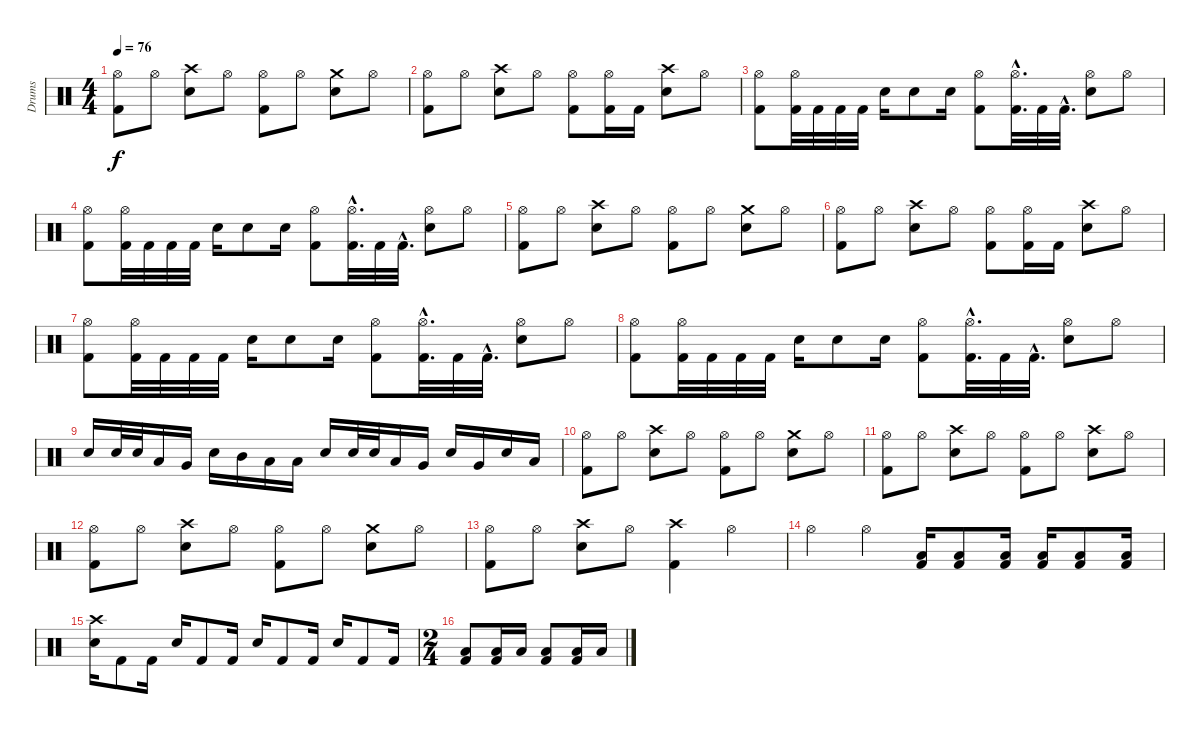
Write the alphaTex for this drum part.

\track ("Drums" "Drums") {instrument percussion}
\staff {score}
\articulation defaults
\ts (4 4)
\tempo 76
\clef neutral
\ks c
("Kick (hit) 2" "Hi-Hat (open)").8{dy f} "Hi-Hat (open)".8 ("Crash high (hit)" "Snare (hit) 2").8 "Hi-Hat (open)".8 ("Kick (hit) 2" "Hi-Hat (open)").8 "Hi-Hat (open)".8 ("Crash medium (hit)" "Snare (hit) 2").8 "Hi-Hat (open)".8 |
("Kick (hit) 2" "Hi-Hat (open)").8 "Hi-Hat (open)".8 ("Snare (hit) 2" "Crash high (hit)").8 "Hi-Hat (open)".8 ("Kick (hit) 2" "Hi-Hat (open)").8 ("Kick (hit) 2" "Hi-Hat (open)").16 "Kick (hit) 2".16 ("Crash high (hit)" "Snare (hit) 2").8 "Hi-Hat (open)".8 |
("Kick (hit) 2" "Hi-Hat (open)").8 ("Hi-Hat (open)" "Kick (hit) 2").32 "Kick (hit) 2".32 "Kick (hit) 2".32 "Kick (hit) 2".32 "Snare (hit) 2".16 "Snare (hit) 2".8 "Snare (hit) 2".16 ("Hi-Hat (open)" "Kick (hit) 2").8 ("Kick (hit) 2"{hac} "Hi-Hat (open)"{hac}).32{d} "Kick (hit) 2".32 "Kick (hit) 2"{hac}.32{d} ("Snare (hit) 2" "Hi-Hat (open)").8 "Hi-Hat (open)".8 |
("Kick (hit) 2" "Hi-Hat (open)").8 ("Hi-Hat (open)" "Kick (hit) 2").32 "Kick (hit) 2".32 "Kick (hit) 2".32 "Kick (hit) 2".32 "Snare (hit) 2".16 "Snare (hit) 2".8 "Snare (hit) 2".16 ("Hi-Hat (open)" "Kick (hit) 2").8 ("Kick (hit) 2"{hac} "Hi-Hat (open)"{hac}).32{d} "Kick (hit) 2".32 "Kick (hit) 2"{hac}.32{d} ("Snare (hit) 2" "Hi-Hat (open)").8 "Hi-Hat (open)".8 |
("Kick (hit) 2" "Hi-Hat (open)").8 "Hi-Hat (open)".8 ("Crash high (hit)" "Snare (hit) 2").8 "Hi-Hat (open)".8 ("Kick (hit) 2" "Hi-Hat (open)").8 "Hi-Hat (open)".8 ("Crash medium (hit)" "Snare (hit) 2").8 "Hi-Hat (open)".8 |
("Kick (hit) 2" "Hi-Hat (open)").8 "Hi-Hat (open)".8 ("Snare (hit) 2" "Crash high (hit)").8 "Hi-Hat (open)".8 ("Kick (hit) 2" "Hi-Hat (open)").8 ("Kick (hit) 2" "Hi-Hat (open)").16 "Kick (hit) 2".16 ("Crash high (hit)" "Snare (hit) 2").8 "Hi-Hat (open)".8 |
("Kick (hit) 2" "Hi-Hat (open)").8 ("Hi-Hat (open)" "Kick (hit) 2").32 "Kick (hit) 2".32 "Kick (hit) 2".32 "Kick (hit) 2".32 "Snare (hit) 2".16 "Snare (hit) 2".8 "Snare (hit) 2".16 ("Hi-Hat (open)" "Kick (hit) 2").8 ("Kick (hit) 2"{hac} "Hi-Hat (open)"{hac}).32{d} "Kick (hit) 2".32 "Kick (hit) 2"{hac}.32{d} ("Snare (hit) 2" "Hi-Hat (open)").8 "Hi-Hat (open)".8 |
("Kick (hit) 2" "Hi-Hat (open)").8 ("Hi-Hat (open)" "Kick (hit) 2").32 "Kick (hit) 2".32 "Kick (hit) 2".32 "Kick (hit) 2".32 "Snare (hit) 2".16 "Snare (hit) 2".8 "Snare (hit) 2".16 ("Hi-Hat (open)" "Kick (hit) 2").8 ("Kick (hit) 2"{hac} "Hi-Hat (open)"{hac}).32{d} "Kick (hit) 2".32 "Kick (hit) 2"{hac}.32{d} ("Snare (hit) 2" "Hi-Hat (open)").8 "Hi-Hat (open)".8 |
"Snare (hit) 2".16 "Snare (hit) 2".32 "Snare (hit) 2".32 "Low Tom (hit)".16 "Very Low Tom (hit)".16 "Snare (hit) 2".16 "Mid Tom (hit)".16 "Low Tom (hit)".16 "Low Floor Tom (hit)".16 "Snare (hit) 2".16 "Snare (hit) 2".32 "Snare (hit) 2".32 "Low Tom (hit)".16 "Very Low Tom (hit)".16 "Snare (hit) 2".16 "Very Low Tom (hit)".16 "Snare (hit) 2".16 "Low Floor Tom (hit)".16 |
("Kick (hit) 2" "Hi-Hat (open)").8 "Hi-Hat (open)".8 ("Crash high (hit)" "Snare (hit) 2").8 "Hi-Hat (open)".8 ("Kick (hit) 2" "Hi-Hat (open)").8 "Hi-Hat (open)".8 ("Crash medium (hit)" "Snare (hit) 2").8 "Hi-Hat (open)".8 |
("Kick (hit) 2" "Hi-Hat (open)").8 "Hi-Hat (open)".8 ("Crash high (hit)" "Snare (hit) 2").8 "Hi-Hat (open)".8 ("Kick (hit) 2" "Hi-Hat (open)").8 "Hi-Hat (open)".8 ("Crash high (hit)" "Snare (hit) 2").8 "Hi-Hat (open)".8 |
("Kick (hit) 2" "Hi-Hat (open)").8 "Hi-Hat (open)".8 ("Crash high (hit)" "Snare (hit) 2").8 "Hi-Hat (open)".8 ("Kick (hit) 2" "Hi-Hat (open)").8 "Hi-Hat (open)".8 ("Crash medium (hit)" "Snare (hit) 2").8 "Hi-Hat (open)".8 |
("Kick (hit) 2" "Hi-Hat (open)").8 "Hi-Hat (open)".8 ("Crash high (hit)" "Snare (hit) 2").8 "Hi-Hat (open)".8 ("Crash high (hit)" "Kick (hit) 2").4 "Hi-Hat (open)".4 |
"Hi-Hat (open)".4 "Hi-Hat (open)".4 ("Kick (hit) 2" "Low Floor Tom (hit)").16 ("Kick (hit) 2" "Low Floor Tom (hit)").8 ("Kick (hit) 2" "Low Floor Tom (hit)").16 ("Low Floor Tom (hit)" "Kick (hit) 2").16 ("Kick (hit) 2" "Low Floor Tom (hit)").8 ("Kick (hit) 2" "Low Floor Tom (hit)").16 |
("Snare (hit) 2" "Crash high (hit)").16 "Kick (hit) 2".8 "Kick (hit) 2".16 "Snare (hit) 2".16 "Kick (hit) 2".8 "Kick (hit) 2".16 "Snare (hit) 2".16 "Kick (hit) 2".8 "Kick (hit) 2".16 "Snare (hit) 2".16 "Kick (hit) 2".8 "Kick (hit) 2".16 |
\ts (2 4)
("Kick (hit) 2" "Low Floor Tom (hit)").8 ("Kick (hit) 2" "Low Floor Tom (hit)").16 "Low Floor Tom (hit)".16 ("Kick (hit) 2" "Low Floor Tom (hit)").8 ("Kick (hit) 2" "Low Floor Tom (hit)").16 "Low Floor Tom (hit)".16
